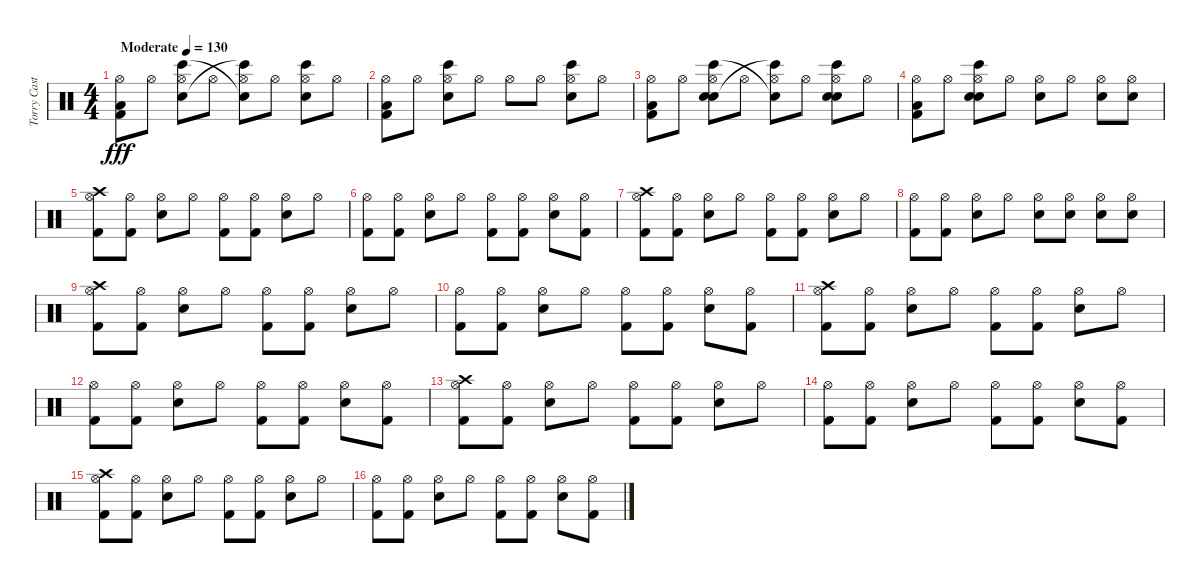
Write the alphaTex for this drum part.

\track ("Torry Castellano" "Torry Cast") {instrument percussion}
\staff {score}
\articulation defaults
\ts (4 4)
\tempo (130 "Moderate")
\clef neutral
\ks c
("Hi-Hat (open)" "Low Floor Tom (hit)" "Kick (hit) 2").8{dy fff} "Hi-Hat (open)".8 ("Hi-Hat (open)" "Bongo High (hit)" "Hand Clap (hit)").8 "Hi-Hat (open)".8 ("Hi-Hat (open)" "Hand Clap (hit)"{t} "Bongo High (hit)"{t}).8 "Hi-Hat (open)".8 ("Hi-Hat (open)" "Bongo High (hit)" "Hand Clap (hit)").8 "Hi-Hat (open)".8 |
("Hi-Hat (open)" "Kick (hit) 2" "Low Floor Tom (hit)").8 "Hi-Hat (open)".8 ("Hi-Hat (open)" "Bongo High (hit)" "Hand Clap (hit)").8 "Hi-Hat (open)".8 "Hi-Hat (open)".8 "Hi-Hat (open)".8 ("Hi-Hat (open)" "Hand Clap (hit)" "Bongo High (hit)").8 "Hi-Hat (open)".8 |
("Hi-Hat (open)" "Low Floor Tom (hit)" "Kick (hit) 2").8 "Hi-Hat (open)".8 ("Hi-Hat (open)" "Bongo High (hit)" "Hand Clap (hit)" "Electric Snare (hit)").8 "Hi-Hat (open)".8 ("Hi-Hat (open)" "Hand Clap (hit)"{t} "Bongo High (hit)"{t}).8 "Hi-Hat (open)".8 ("Hi-Hat (open)" "Bongo High (hit)" "Hand Clap (hit)" "Electric Snare (hit)").8 "Hi-Hat (open)".8 |
("Hi-Hat (open)" "Kick (hit) 2" "Low Floor Tom (hit)").8 "Hi-Hat (open)".8 ("Hi-Hat (open)" "Bongo High (hit)" "Hand Clap (hit)" "Electric Snare (hit)").8 "Hi-Hat (open)".8 ("Hi-Hat (open)" "Electric Snare (hit)").8 "Hi-Hat (open)".8 ("Hi-Hat (open)" "Electric Snare (hit)").8 ("Hi-Hat (open)" "Electric Snare (hit)").8 |
("Crash high (hit)" "Hi-Hat (open)" "Kick (hit) 2").8 ("Hi-Hat (open)" "Kick (hit) 2").8 ("Hi-Hat (open)" "Electric Snare (hit)").8 "Hi-Hat (open)".8 ("Hi-Hat (open)" "Kick (hit) 2").8 ("Hi-Hat (open)" "Kick (hit) 2").8 ("Hi-Hat (open)" "Electric Snare (hit)").8 "Hi-Hat (open)".8 |
("Hi-Hat (open)" "Kick (hit) 2").8 ("Hi-Hat (open)" "Kick (hit) 2").8 ("Hi-Hat (open)" "Electric Snare (hit)").8 "Hi-Hat (open)".8 ("Hi-Hat (open)" "Kick (hit) 2").8 ("Hi-Hat (open)" "Kick (hit) 2").8 ("Hi-Hat (open)" "Electric Snare (hit)").8 ("Hi-Hat (open)" "Kick (hit) 2").8 |
("Crash high (hit)" "Hi-Hat (open)" "Kick (hit) 2").8 ("Hi-Hat (open)" "Kick (hit) 2").8 ("Hi-Hat (open)" "Electric Snare (hit)").8 "Hi-Hat (open)".8 ("Hi-Hat (open)" "Kick (hit) 2").8 ("Hi-Hat (open)" "Kick (hit) 2").8 ("Hi-Hat (open)" "Electric Snare (hit)").8 "Hi-Hat (open)".8 |
("Hi-Hat (open)" "Kick (hit) 2").8 ("Hi-Hat (open)" "Kick (hit) 2").8 ("Hi-Hat (open)" "Electric Snare (hit)").8 "Hi-Hat (open)".8 ("Hi-Hat (open)" "Electric Snare (hit)").8 ("Hi-Hat (open)" "Electric Snare (hit)").8 ("Hi-Hat (open)" "Electric Snare (hit)").8 ("Hi-Hat (open)" "Electric Snare (hit)").8 |
("Crash high (hit)" "Hi-Hat (open)" "Kick (hit) 2").8 ("Hi-Hat (open)" "Kick (hit) 2").8 ("Hi-Hat (open)" "Electric Snare (hit)").8 "Hi-Hat (open)".8 ("Hi-Hat (open)" "Kick (hit) 2").8 ("Hi-Hat (open)" "Kick (hit) 2").8 ("Hi-Hat (open)" "Electric Snare (hit)").8 "Hi-Hat (open)".8 |
("Hi-Hat (open)" "Kick (hit) 2").8 ("Hi-Hat (open)" "Kick (hit) 2").8 ("Hi-Hat (open)" "Electric Snare (hit)").8 "Hi-Hat (open)".8 ("Hi-Hat (open)" "Kick (hit) 2").8 ("Hi-Hat (open)" "Kick (hit) 2").8 ("Hi-Hat (open)" "Electric Snare (hit)").8 ("Hi-Hat (open)" "Kick (hit) 2").8 |
("Crash high (hit)" "Hi-Hat (open)" "Kick (hit) 2").8 ("Hi-Hat (open)" "Kick (hit) 2").8 ("Hi-Hat (open)" "Electric Snare (hit)").8 "Hi-Hat (open)".8 ("Hi-Hat (open)" "Kick (hit) 2").8 ("Hi-Hat (open)" "Kick (hit) 2").8 ("Hi-Hat (open)" "Electric Snare (hit)").8 "Hi-Hat (open)".8 |
("Hi-Hat (open)" "Kick (hit) 2").8 ("Hi-Hat (open)" "Kick (hit) 2").8 ("Hi-Hat (open)" "Electric Snare (hit)").8 "Hi-Hat (open)".8 ("Hi-Hat (open)" "Kick (hit) 2").8 ("Hi-Hat (open)" "Kick (hit) 2").8 ("Hi-Hat (open)" "Electric Snare (hit)").8 ("Hi-Hat (open)" "Kick (hit) 2").8 |
("Crash high (hit)" "Hi-Hat (open)" "Kick (hit) 2").8 ("Hi-Hat (open)" "Kick (hit) 2").8 ("Hi-Hat (open)" "Electric Snare (hit)").8 "Hi-Hat (open)".8 ("Hi-Hat (open)" "Kick (hit) 2").8 ("Hi-Hat (open)" "Kick (hit) 2").8 ("Hi-Hat (open)" "Electric Snare (hit)").8 "Hi-Hat (open)".8 |
("Hi-Hat (open)" "Kick (hit) 2").8 ("Hi-Hat (open)" "Kick (hit) 2").8 ("Hi-Hat (open)" "Electric Snare (hit)").8 "Hi-Hat (open)".8 ("Hi-Hat (open)" "Kick (hit) 2").8 ("Hi-Hat (open)" "Kick (hit) 2").8 ("Hi-Hat (open)" "Electric Snare (hit)").8 ("Hi-Hat (open)" "Kick (hit) 2").8 |
("Crash high (hit)" "Hi-Hat (open)" "Kick (hit) 2").8 ("Hi-Hat (open)" "Kick (hit) 2").8 ("Hi-Hat (open)" "Electric Snare (hit)").8 "Hi-Hat (open)".8 ("Hi-Hat (open)" "Kick (hit) 2").8 ("Hi-Hat (open)" "Kick (hit) 2").8 ("Hi-Hat (open)" "Electric Snare (hit)").8 "Hi-Hat (open)".8 |
("Hi-Hat (open)" "Kick (hit) 2").8 ("Hi-Hat (open)" "Kick (hit) 2").8 ("Hi-Hat (open)" "Electric Snare (hit)").8 "Hi-Hat (open)".8 ("Hi-Hat (open)" "Kick (hit) 2").8 ("Hi-Hat (open)" "Kick (hit) 2").8 ("Hi-Hat (open)" "Electric Snare (hit)").8 ("Hi-Hat (open)" "Kick (hit) 2").8
